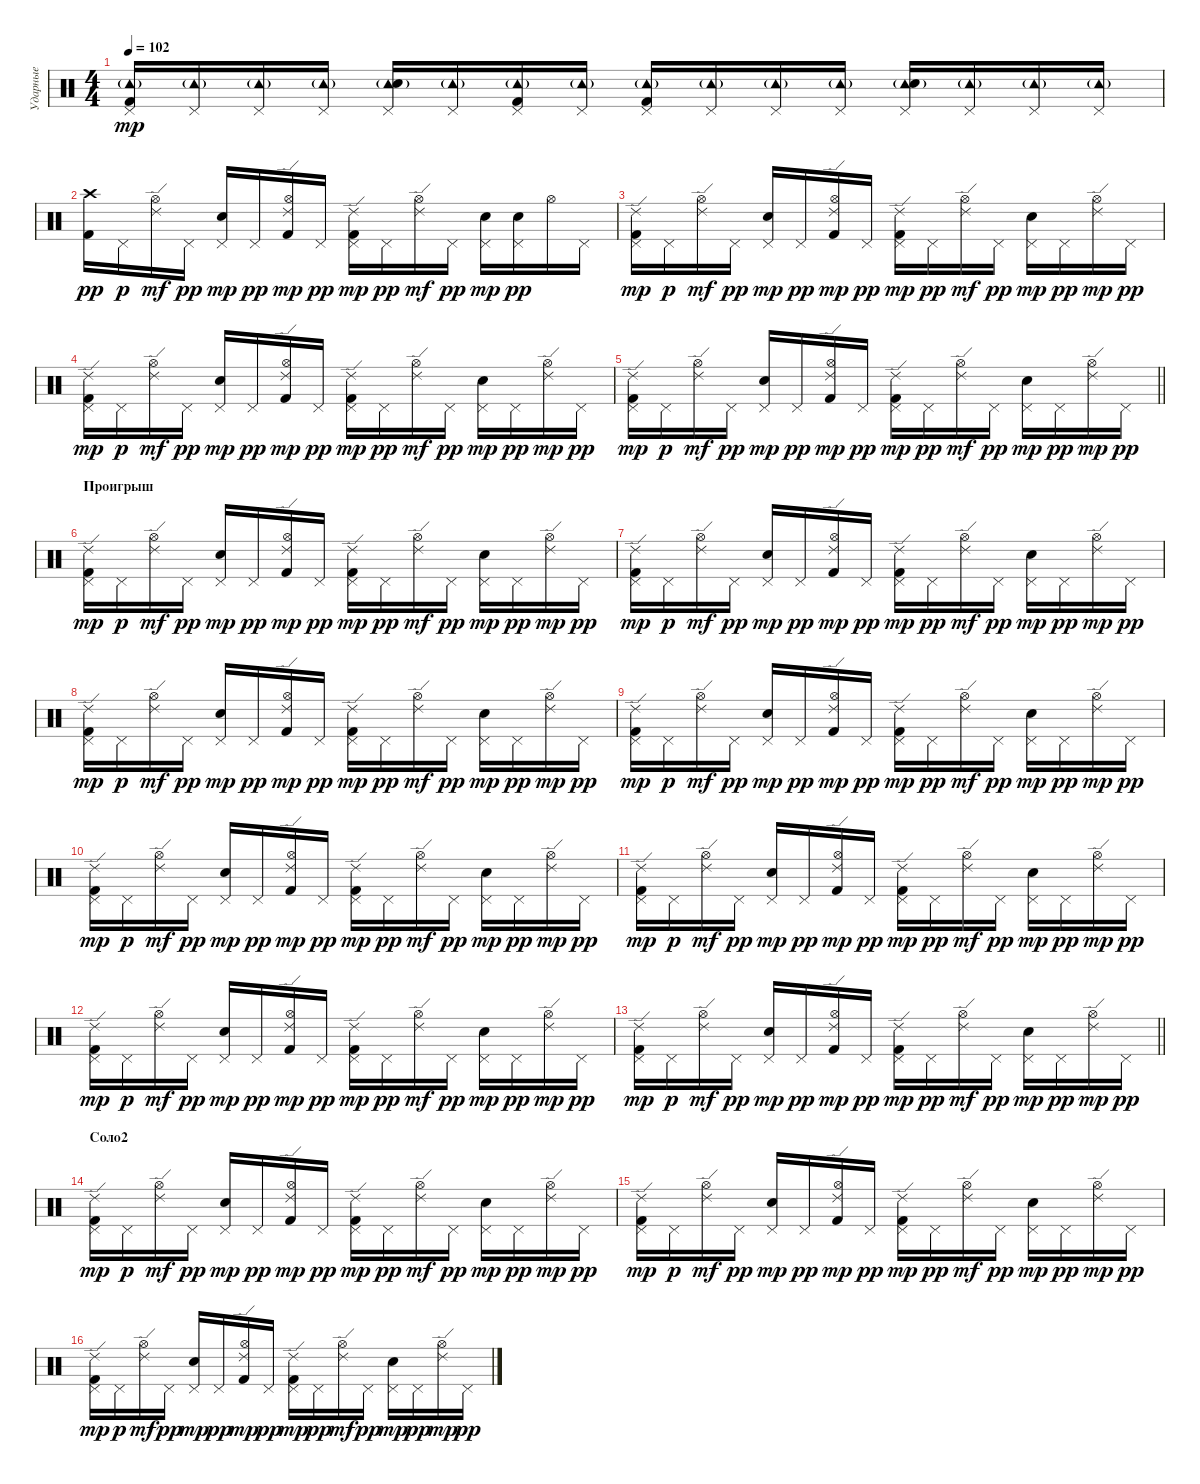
\track ("Ударные" "Ударные") {instrument percussion}
\staff {score}
\articulation defaults
\ts (4 4)
\tempo 102
\clef neutral
\ks c
("Pedal Hi-Hat (hit)" "Tambourine (hit)"{g} "Kick (hit) 2").16{dy mp} ("Pedal Hi-Hat (hit)" "Tambourine (hit)"{g}).16 ("Pedal Hi-Hat (hit)" "Tambourine (hit)"{g}).16 ("Pedal Hi-Hat (hit)" "Tambourine (hit)"{g}).16 ("Pedal Hi-Hat (hit)" "Tambourine (hit)"{g} "Hand Clap (hit)").16 ("Pedal Hi-Hat (hit)" "Tambourine (hit)"{g}).16 ("Pedal Hi-Hat (hit)" "Tambourine (hit)"{g} "Kick (hit) 2").16 ("Pedal Hi-Hat (hit)" "Tambourine (hit)"{g}).16 ("Pedal Hi-Hat (hit)" "Tambourine (hit)"{g} "Kick (hit) 2").16 ("Pedal Hi-Hat (hit)" "Tambourine (hit)"{g}).16 ("Pedal Hi-Hat (hit)" "Tambourine (hit)"{g}).16 ("Pedal Hi-Hat (hit)" "Tambourine (hit)"{g}).16 ("Pedal Hi-Hat (hit)" "Tambourine (hit)"{g} "Hand Clap (hit)").16 ("Pedal Hi-Hat (hit)" "Tambourine (hit)"{g}).16 ("Pedal Hi-Hat (hit)" "Tambourine (hit)"{g}).16 ("Pedal Hi-Hat (hit)" "Tambourine (hit)"{g}).16 |
("Crash high (hit)" "Kick (hit) 2").16{dy pp} "Pedal Hi-Hat (hit)".16{dy p} ("Hi-Hat (open)" "Ride (edge) 2").16{dy mf} "Pedal Hi-Hat (hit)".16{dy pp} ("Pedal Hi-Hat (hit)" "Snare (hit) 2").16{dy mp} "Pedal Hi-Hat (hit)".16{dy pp} ("Hi-Hat (open)" "Ride (edge) 2" "Kick (hit) 2").16{dy mp} "Pedal Hi-Hat (hit)".16{dy pp} ("Pedal Hi-Hat (hit)" "Ride (edge) 2" "Kick (hit) 2").16{dy mp} "Pedal Hi-Hat (hit)".16{dy pp} ("Hi-Hat (open)" "Ride (edge) 2").16{dy mf} "Pedal Hi-Hat (hit)".16{dy pp} ("Pedal Hi-Hat (hit)" "Electric Snare (hit)").16{dy mp} ("Pedal Hi-Hat (hit)" "Electric Snare (hit)").16{dy pp} "Hi-Hat (open)".16 "Pedal Hi-Hat (hit)".16 |
("Pedal Hi-Hat (hit)" "Ride (edge) 2" "Kick (hit) 2").16{dy mp} "Pedal Hi-Hat (hit)".16{dy p} ("Hi-Hat (open)" "Ride (edge) 2").16{dy mf} "Pedal Hi-Hat (hit)".16{dy pp} ("Pedal Hi-Hat (hit)" "Snare (hit) 2").16{dy mp} "Pedal Hi-Hat (hit)".16{dy pp} ("Hi-Hat (open)" "Ride (edge) 2" "Kick (hit) 2").16{dy mp} "Pedal Hi-Hat (hit)".16{dy pp} ("Pedal Hi-Hat (hit)" "Ride (edge) 2" "Kick (hit) 2").16{dy mp} "Pedal Hi-Hat (hit)".16{dy pp} ("Hi-Hat (open)" "Ride (edge) 2").16{dy mf} "Pedal Hi-Hat (hit)".16{dy pp} ("Pedal Hi-Hat (hit)" "Snare (hit) 2").16{dy mp} "Pedal Hi-Hat (hit)".16{dy pp} ("Hi-Hat (open)" "Ride (edge) 2").16{dy mp} "Pedal Hi-Hat (hit)".16{dy pp} |
("Pedal Hi-Hat (hit)" "Ride (edge) 2" "Kick (hit) 2").16{dy mp} "Pedal Hi-Hat (hit)".16{dy p} ("Hi-Hat (open)" "Ride (edge) 2").16{dy mf} "Pedal Hi-Hat (hit)".16{dy pp} ("Pedal Hi-Hat (hit)" "Snare (hit) 2").16{dy mp} "Pedal Hi-Hat (hit)".16{dy pp} ("Hi-Hat (open)" "Ride (edge) 2" "Kick (hit) 2").16{dy mp} "Pedal Hi-Hat (hit)".16{dy pp} ("Pedal Hi-Hat (hit)" "Ride (edge) 2" "Kick (hit) 2").16{dy mp} "Pedal Hi-Hat (hit)".16{dy pp} ("Hi-Hat (open)" "Ride (edge) 2").16{dy mf} "Pedal Hi-Hat (hit)".16{dy pp} ("Pedal Hi-Hat (hit)" "Snare (hit) 2").16{dy mp} "Pedal Hi-Hat (hit)".16{dy pp} ("Hi-Hat (open)" "Ride (edge) 2").16{dy mp} "Pedal Hi-Hat (hit)".16{dy pp} |
\barLineRight lightlight
("Pedal Hi-Hat (hit)" "Ride (edge) 2" "Kick (hit) 2").16{dy mp} "Pedal Hi-Hat (hit)".16{dy p} ("Hi-Hat (open)" "Ride (edge) 2").16{dy mf} "Pedal Hi-Hat (hit)".16{dy pp} ("Pedal Hi-Hat (hit)" "Snare (hit) 2").16{dy mp} "Pedal Hi-Hat (hit)".16{dy pp} ("Hi-Hat (open)" "Ride (edge) 2" "Kick (hit) 2").16{dy mp} "Pedal Hi-Hat (hit)".16{dy pp} ("Pedal Hi-Hat (hit)" "Ride (edge) 2" "Kick (hit) 2").16{dy mp} "Pedal Hi-Hat (hit)".16{dy pp} ("Hi-Hat (open)" "Ride (edge) 2").16{dy mf} "Pedal Hi-Hat (hit)".16{dy pp} ("Pedal Hi-Hat (hit)" "Snare (hit) 2").16{dy mp} "Pedal Hi-Hat (hit)".16{dy pp} ("Hi-Hat (open)" "Ride (edge) 2").16{dy mp} "Pedal Hi-Hat (hit)".16{dy pp} |
\section ("" "Проигрыш")
("Pedal Hi-Hat (hit)" "Ride (edge) 2" "Kick (hit) 2").16{dy mp} "Pedal Hi-Hat (hit)".16{dy p} ("Hi-Hat (open)" "Ride (edge) 2").16{dy mf} "Pedal Hi-Hat (hit)".16{dy pp} ("Pedal Hi-Hat (hit)" "Snare (hit) 2").16{dy mp} "Pedal Hi-Hat (hit)".16{dy pp} ("Hi-Hat (open)" "Ride (edge) 2" "Kick (hit) 2").16{dy mp} "Pedal Hi-Hat (hit)".16{dy pp} ("Pedal Hi-Hat (hit)" "Ride (edge) 2" "Kick (hit) 2").16{dy mp} "Pedal Hi-Hat (hit)".16{dy pp} ("Hi-Hat (open)" "Ride (edge) 2").16{dy mf} "Pedal Hi-Hat (hit)".16{dy pp} ("Pedal Hi-Hat (hit)" "Snare (hit) 2").16{dy mp} "Pedal Hi-Hat (hit)".16{dy pp} ("Hi-Hat (open)" "Ride (edge) 2").16{dy mp} "Pedal Hi-Hat (hit)".16{dy pp} |
("Pedal Hi-Hat (hit)" "Ride (edge) 2" "Kick (hit) 2").16{dy mp} "Pedal Hi-Hat (hit)".16{dy p} ("Hi-Hat (open)" "Ride (edge) 2").16{dy mf} "Pedal Hi-Hat (hit)".16{dy pp} ("Pedal Hi-Hat (hit)" "Snare (hit) 2").16{dy mp} "Pedal Hi-Hat (hit)".16{dy pp} ("Hi-Hat (open)" "Ride (edge) 2" "Kick (hit) 2").16{dy mp} "Pedal Hi-Hat (hit)".16{dy pp} ("Pedal Hi-Hat (hit)" "Ride (edge) 2" "Kick (hit) 2").16{dy mp} "Pedal Hi-Hat (hit)".16{dy pp} ("Hi-Hat (open)" "Ride (edge) 2").16{dy mf} "Pedal Hi-Hat (hit)".16{dy pp} ("Pedal Hi-Hat (hit)" "Snare (hit) 2").16{dy mp} "Pedal Hi-Hat (hit)".16{dy pp} ("Hi-Hat (open)" "Ride (edge) 2").16{dy mp} "Pedal Hi-Hat (hit)".16{dy pp} |
("Pedal Hi-Hat (hit)" "Ride (edge) 2" "Kick (hit) 2").16{dy mp} "Pedal Hi-Hat (hit)".16{dy p} ("Hi-Hat (open)" "Ride (edge) 2").16{dy mf} "Pedal Hi-Hat (hit)".16{dy pp} ("Pedal Hi-Hat (hit)" "Snare (hit) 2").16{dy mp} "Pedal Hi-Hat (hit)".16{dy pp} ("Hi-Hat (open)" "Ride (edge) 2" "Kick (hit) 2").16{dy mp} "Pedal Hi-Hat (hit)".16{dy pp} ("Pedal Hi-Hat (hit)" "Ride (edge) 2" "Kick (hit) 2").16{dy mp} "Pedal Hi-Hat (hit)".16{dy pp} ("Hi-Hat (open)" "Ride (edge) 2").16{dy mf} "Pedal Hi-Hat (hit)".16{dy pp} ("Pedal Hi-Hat (hit)" "Snare (hit) 2").16{dy mp} "Pedal Hi-Hat (hit)".16{dy pp} ("Hi-Hat (open)" "Ride (edge) 2").16{dy mp} "Pedal Hi-Hat (hit)".16{dy pp} |
("Pedal Hi-Hat (hit)" "Ride (edge) 2" "Kick (hit) 2").16{dy mp} "Pedal Hi-Hat (hit)".16{dy p} ("Hi-Hat (open)" "Ride (edge) 2").16{dy mf} "Pedal Hi-Hat (hit)".16{dy pp} ("Pedal Hi-Hat (hit)" "Snare (hit) 2").16{dy mp} "Pedal Hi-Hat (hit)".16{dy pp} ("Hi-Hat (open)" "Ride (edge) 2" "Kick (hit) 2").16{dy mp} "Pedal Hi-Hat (hit)".16{dy pp} ("Pedal Hi-Hat (hit)" "Ride (edge) 2" "Kick (hit) 2").16{dy mp} "Pedal Hi-Hat (hit)".16{dy pp} ("Hi-Hat (open)" "Ride (edge) 2").16{dy mf} "Pedal Hi-Hat (hit)".16{dy pp} ("Pedal Hi-Hat (hit)" "Snare (hit) 2").16{dy mp} "Pedal Hi-Hat (hit)".16{dy pp} ("Hi-Hat (open)" "Ride (edge) 2").16{dy mp} "Pedal Hi-Hat (hit)".16{dy pp} |
("Pedal Hi-Hat (hit)" "Ride (edge) 2" "Kick (hit) 2").16{dy mp} "Pedal Hi-Hat (hit)".16{dy p} ("Hi-Hat (open)" "Ride (edge) 2").16{dy mf} "Pedal Hi-Hat (hit)".16{dy pp} ("Pedal Hi-Hat (hit)" "Snare (hit) 2").16{dy mp} "Pedal Hi-Hat (hit)".16{dy pp} ("Hi-Hat (open)" "Ride (edge) 2" "Kick (hit) 2").16{dy mp} "Pedal Hi-Hat (hit)".16{dy pp} ("Pedal Hi-Hat (hit)" "Ride (edge) 2" "Kick (hit) 2").16{dy mp} "Pedal Hi-Hat (hit)".16{dy pp} ("Hi-Hat (open)" "Ride (edge) 2").16{dy mf} "Pedal Hi-Hat (hit)".16{dy pp} ("Pedal Hi-Hat (hit)" "Snare (hit) 2").16{dy mp} "Pedal Hi-Hat (hit)".16{dy pp} ("Hi-Hat (open)" "Ride (edge) 2").16{dy mp} "Pedal Hi-Hat (hit)".16{dy pp} |
("Pedal Hi-Hat (hit)" "Ride (edge) 2" "Kick (hit) 2").16{dy mp} "Pedal Hi-Hat (hit)".16{dy p} ("Hi-Hat (open)" "Ride (edge) 2").16{dy mf} "Pedal Hi-Hat (hit)".16{dy pp} ("Pedal Hi-Hat (hit)" "Snare (hit) 2").16{dy mp} "Pedal Hi-Hat (hit)".16{dy pp} ("Hi-Hat (open)" "Ride (edge) 2" "Kick (hit) 2").16{dy mp} "Pedal Hi-Hat (hit)".16{dy pp} ("Pedal Hi-Hat (hit)" "Ride (edge) 2" "Kick (hit) 2").16{dy mp} "Pedal Hi-Hat (hit)".16{dy pp} ("Hi-Hat (open)" "Ride (edge) 2").16{dy mf} "Pedal Hi-Hat (hit)".16{dy pp} ("Pedal Hi-Hat (hit)" "Snare (hit) 2").16{dy mp} "Pedal Hi-Hat (hit)".16{dy pp} ("Hi-Hat (open)" "Ride (edge) 2").16{dy mp} "Pedal Hi-Hat (hit)".16{dy pp} |
("Pedal Hi-Hat (hit)" "Ride (edge) 2" "Kick (hit) 2").16{dy mp} "Pedal Hi-Hat (hit)".16{dy p} ("Hi-Hat (open)" "Ride (edge) 2").16{dy mf} "Pedal Hi-Hat (hit)".16{dy pp} ("Pedal Hi-Hat (hit)" "Snare (hit) 2").16{dy mp} "Pedal Hi-Hat (hit)".16{dy pp} ("Hi-Hat (open)" "Ride (edge) 2" "Kick (hit) 2").16{dy mp} "Pedal Hi-Hat (hit)".16{dy pp} ("Pedal Hi-Hat (hit)" "Ride (edge) 2" "Kick (hit) 2").16{dy mp} "Pedal Hi-Hat (hit)".16{dy pp} ("Hi-Hat (open)" "Ride (edge) 2").16{dy mf} "Pedal Hi-Hat (hit)".16{dy pp} ("Pedal Hi-Hat (hit)" "Snare (hit) 2").16{dy mp} "Pedal Hi-Hat (hit)".16{dy pp} ("Hi-Hat (open)" "Ride (edge) 2").16{dy mp} "Pedal Hi-Hat (hit)".16{dy pp} |
\barLineRight lightlight
("Pedal Hi-Hat (hit)" "Ride (edge) 2" "Kick (hit) 2").16{dy mp} "Pedal Hi-Hat (hit)".16{dy p} ("Hi-Hat (open)" "Ride (edge) 2").16{dy mf} "Pedal Hi-Hat (hit)".16{dy pp} ("Pedal Hi-Hat (hit)" "Snare (hit) 2").16{dy mp} "Pedal Hi-Hat (hit)".16{dy pp} ("Hi-Hat (open)" "Ride (edge) 2" "Kick (hit) 2").16{dy mp} "Pedal Hi-Hat (hit)".16{dy pp} ("Pedal Hi-Hat (hit)" "Ride (edge) 2" "Kick (hit) 2").16{dy mp} "Pedal Hi-Hat (hit)".16{dy pp} ("Hi-Hat (open)" "Ride (edge) 2").16{dy mf} "Pedal Hi-Hat (hit)".16{dy pp} ("Pedal Hi-Hat (hit)" "Snare (hit) 2").16{dy mp} "Pedal Hi-Hat (hit)".16{dy pp} ("Hi-Hat (open)" "Ride (edge) 2").16{dy mp} "Pedal Hi-Hat (hit)".16{dy pp} |
\section ("" "Соло2")
("Pedal Hi-Hat (hit)" "Ride (edge) 2" "Kick (hit) 2").16{dy mp} "Pedal Hi-Hat (hit)".16{dy p} ("Hi-Hat (open)" "Ride (edge) 2").16{dy mf} "Pedal Hi-Hat (hit)".16{dy pp} ("Pedal Hi-Hat (hit)" "Snare (hit) 2").16{dy mp} "Pedal Hi-Hat (hit)".16{dy pp} ("Hi-Hat (open)" "Ride (edge) 2" "Kick (hit) 2").16{dy mp} "Pedal Hi-Hat (hit)".16{dy pp} ("Pedal Hi-Hat (hit)" "Ride (edge) 2" "Kick (hit) 2").16{dy mp} "Pedal Hi-Hat (hit)".16{dy pp} ("Hi-Hat (open)" "Ride (edge) 2").16{dy mf} "Pedal Hi-Hat (hit)".16{dy pp} ("Pedal Hi-Hat (hit)" "Snare (hit) 2").16{dy mp} "Pedal Hi-Hat (hit)".16{dy pp} ("Hi-Hat (open)" "Ride (edge) 2").16{dy mp} "Pedal Hi-Hat (hit)".16{dy pp} |
("Pedal Hi-Hat (hit)" "Ride (edge) 2" "Kick (hit) 2").16{dy mp} "Pedal Hi-Hat (hit)".16{dy p} ("Hi-Hat (open)" "Ride (edge) 2").16{dy mf} "Pedal Hi-Hat (hit)".16{dy pp} ("Pedal Hi-Hat (hit)" "Snare (hit) 2").16{dy mp} "Pedal Hi-Hat (hit)".16{dy pp} ("Hi-Hat (open)" "Ride (edge) 2" "Kick (hit) 2").16{dy mp} "Pedal Hi-Hat (hit)".16{dy pp} ("Pedal Hi-Hat (hit)" "Ride (edge) 2" "Kick (hit) 2").16{dy mp} "Pedal Hi-Hat (hit)".16{dy pp} ("Hi-Hat (open)" "Ride (edge) 2").16{dy mf} "Pedal Hi-Hat (hit)".16{dy pp} ("Pedal Hi-Hat (hit)" "Snare (hit) 2").16{dy mp} "Pedal Hi-Hat (hit)".16{dy pp} ("Hi-Hat (open)" "Ride (edge) 2").16{dy mp} "Pedal Hi-Hat (hit)".16{dy pp} |
("Pedal Hi-Hat (hit)" "Ride (edge) 2" "Kick (hit) 2").16{dy mp} "Pedal Hi-Hat (hit)".16{dy p} ("Hi-Hat (open)" "Ride (edge) 2").16{dy mf} "Pedal Hi-Hat (hit)".16{dy pp} ("Pedal Hi-Hat (hit)" "Snare (hit) 2").16{dy mp} "Pedal Hi-Hat (hit)".16{dy pp} ("Hi-Hat (open)" "Ride (edge) 2" "Kick (hit) 2").16{dy mp} "Pedal Hi-Hat (hit)".16{dy pp} ("Pedal Hi-Hat (hit)" "Ride (edge) 2" "Kick (hit) 2").16{dy mp} "Pedal Hi-Hat (hit)".16{dy pp} ("Hi-Hat (open)" "Ride (edge) 2").16{dy mf} "Pedal Hi-Hat (hit)".16{dy pp} ("Pedal Hi-Hat (hit)" "Snare (hit) 2").16{dy mp} "Pedal Hi-Hat (hit)".16{dy pp} ("Hi-Hat (open)" "Ride (edge) 2").16{dy mp} "Pedal Hi-Hat (hit)".16{dy pp}
